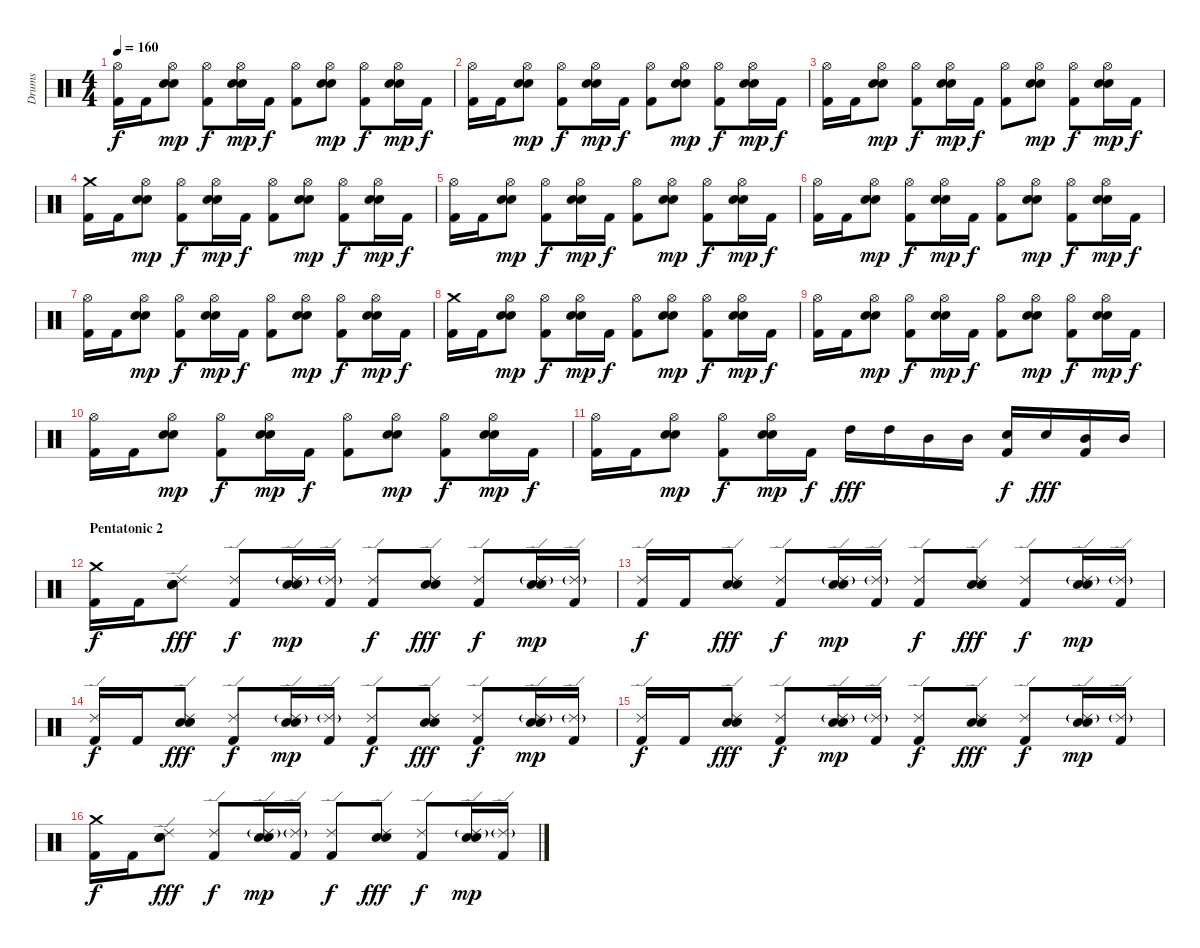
\track ("Drums" "Drums") {instrument percussion}
\staff {score}
\articulation defaults
\ts (4 4)
\tempo 160
\clef neutral
\ks c
("Kick (hit) 2" "Hi-Hat (open)").16{dy f} "Kick (hit) 2".16 ("Snare (hit) 2" "Electric Snare (hit)" "Hi-Hat (open)").8{dy mp} ("Kick (hit) 2" "Hi-Hat (open)").8{dy f} ("Snare (hit) 2" "Electric Snare (hit)" "Hi-Hat (open)").16{dy mp} "Kick (hit) 2".16{dy f} ("Kick (hit) 2" "Hi-Hat (open)").8 ("Snare (hit) 2" "Electric Snare (hit)" "Hi-Hat (open)").8{dy mp} ("Kick (hit) 2" "Hi-Hat (open)").8{dy f} ("Snare (hit) 2" "Electric Snare (hit)" "Hi-Hat (open)").16{dy mp} "Kick (hit) 2".16{dy f} |
("Kick (hit) 2" "Hi-Hat (open)").16 "Kick (hit) 2".16 ("Snare (hit) 2" "Electric Snare (hit)" "Hi-Hat (open)").8{dy mp} ("Kick (hit) 2" "Hi-Hat (open)").8{dy f} ("Snare (hit) 2" "Electric Snare (hit)" "Hi-Hat (open)").16{dy mp} "Kick (hit) 2".16{dy f} ("Kick (hit) 2" "Hi-Hat (open)").8 ("Snare (hit) 2" "Electric Snare (hit)" "Hi-Hat (open)").8{dy mp} ("Kick (hit) 2" "Hi-Hat (open)").8{dy f} ("Snare (hit) 2" "Electric Snare (hit)" "Hi-Hat (open)").16{dy mp} "Kick (hit) 2".16{dy f} |
("Kick (hit) 2" "Hi-Hat (open)").16 "Kick (hit) 2".16 ("Snare (hit) 2" "Electric Snare (hit)" "Hi-Hat (open)").8{dy mp} ("Kick (hit) 2" "Hi-Hat (open)").8{dy f} ("Snare (hit) 2" "Electric Snare (hit)" "Hi-Hat (open)").16{dy mp} "Kick (hit) 2".16{dy f} ("Kick (hit) 2" "Hi-Hat (open)").8 ("Snare (hit) 2" "Electric Snare (hit)" "Hi-Hat (open)").8{dy mp} ("Kick (hit) 2" "Hi-Hat (open)").8{dy f} ("Snare (hit) 2" "Electric Snare (hit)" "Hi-Hat (open)").16{dy mp} "Kick (hit) 2".16{dy f} |
("Kick (hit) 2" "Crash medium (hit)").16 "Kick (hit) 2".16 ("Snare (hit) 2" "Electric Snare (hit)" "Hi-Hat (open)").8{dy mp} ("Kick (hit) 2" "Hi-Hat (open)").8{dy f} ("Snare (hit) 2" "Electric Snare (hit)" "Hi-Hat (open)").16{dy mp} "Kick (hit) 2".16{dy f} ("Kick (hit) 2" "Hi-Hat (open)").8 ("Snare (hit) 2" "Electric Snare (hit)" "Hi-Hat (open)").8{dy mp} ("Kick (hit) 2" "Hi-Hat (open)").8{dy f} ("Snare (hit) 2" "Electric Snare (hit)" "Hi-Hat (open)").16{dy mp} "Kick (hit) 2".16{dy f} |
("Kick (hit) 2" "Hi-Hat (open)").16 "Kick (hit) 2".16 ("Snare (hit) 2" "Electric Snare (hit)" "Hi-Hat (open)").8{dy mp} ("Kick (hit) 2" "Hi-Hat (open)").8{dy f} ("Snare (hit) 2" "Electric Snare (hit)" "Hi-Hat (open)").16{dy mp} "Kick (hit) 2".16{dy f} ("Kick (hit) 2" "Hi-Hat (open)").8 ("Snare (hit) 2" "Electric Snare (hit)" "Hi-Hat (open)").8{dy mp} ("Kick (hit) 2" "Hi-Hat (open)").8{dy f} ("Snare (hit) 2" "Electric Snare (hit)" "Hi-Hat (open)").16{dy mp} "Kick (hit) 2".16{dy f} |
("Kick (hit) 2" "Hi-Hat (open)").16 "Kick (hit) 2".16 ("Snare (hit) 2" "Electric Snare (hit)" "Hi-Hat (open)").8{dy mp} ("Kick (hit) 2" "Hi-Hat (open)").8{dy f} ("Snare (hit) 2" "Electric Snare (hit)" "Hi-Hat (open)").16{dy mp} "Kick (hit) 2".16{dy f} ("Kick (hit) 2" "Hi-Hat (open)").8 ("Snare (hit) 2" "Electric Snare (hit)" "Hi-Hat (open)").8{dy mp} ("Kick (hit) 2" "Hi-Hat (open)").8{dy f} ("Snare (hit) 2" "Electric Snare (hit)" "Hi-Hat (open)").16{dy mp} "Kick (hit) 2".16{dy f} |
("Kick (hit) 2" "Hi-Hat (open)").16 "Kick (hit) 2".16 ("Snare (hit) 2" "Electric Snare (hit)" "Hi-Hat (open)").8{dy mp} ("Kick (hit) 2" "Hi-Hat (open)").8{dy f} ("Snare (hit) 2" "Electric Snare (hit)" "Hi-Hat (open)").16{dy mp} "Kick (hit) 2".16{dy f} ("Kick (hit) 2" "Hi-Hat (open)").8 ("Snare (hit) 2" "Electric Snare (hit)" "Hi-Hat (open)").8{dy mp} ("Kick (hit) 2" "Hi-Hat (open)").8{dy f} ("Snare (hit) 2" "Electric Snare (hit)" "Hi-Hat (open)").16{dy mp} "Kick (hit) 2".16{dy f} |
("Kick (hit) 2" "Crash medium (hit)").16 "Kick (hit) 2".16 ("Snare (hit) 2" "Electric Snare (hit)" "Hi-Hat (open)").8{dy mp} ("Kick (hit) 2" "Hi-Hat (open)").8{dy f} ("Snare (hit) 2" "Electric Snare (hit)" "Hi-Hat (open)").16{dy mp} "Kick (hit) 2".16{dy f} ("Kick (hit) 2" "Hi-Hat (open)").8 ("Snare (hit) 2" "Electric Snare (hit)" "Hi-Hat (open)").8{dy mp} ("Kick (hit) 2" "Hi-Hat (open)").8{dy f} ("Snare (hit) 2" "Electric Snare (hit)" "Hi-Hat (open)").16{dy mp} "Kick (hit) 2".16{dy f} |
("Kick (hit) 2" "Hi-Hat (open)").16 "Kick (hit) 2".16 ("Snare (hit) 2" "Electric Snare (hit)" "Hi-Hat (open)").8{dy mp} ("Kick (hit) 2" "Hi-Hat (open)").8{dy f} ("Snare (hit) 2" "Electric Snare (hit)" "Hi-Hat (open)").16{dy mp} "Kick (hit) 2".16{dy f} ("Kick (hit) 2" "Hi-Hat (open)").8 ("Snare (hit) 2" "Electric Snare (hit)" "Hi-Hat (open)").8{dy mp} ("Kick (hit) 2" "Hi-Hat (open)").8{dy f} ("Snare (hit) 2" "Electric Snare (hit)" "Hi-Hat (open)").16{dy mp} "Kick (hit) 2".16{dy f} |
("Kick (hit) 2" "Hi-Hat (open)").16 "Kick (hit) 2".16 ("Snare (hit) 2" "Electric Snare (hit)" "Hi-Hat (open)").8{dy mp} ("Kick (hit) 2" "Hi-Hat (open)").8{dy f} ("Snare (hit) 2" "Electric Snare (hit)" "Hi-Hat (open)").16{dy mp} "Kick (hit) 2".16{dy f} ("Kick (hit) 2" "Hi-Hat (open)").8 ("Snare (hit) 2" "Electric Snare (hit)" "Hi-Hat (open)").8{dy mp} ("Kick (hit) 2" "Hi-Hat (open)").8{dy f} ("Snare (hit) 2" "Electric Snare (hit)" "Hi-Hat (open)").16{dy mp} "Kick (hit) 2".16{dy f} |
("Kick (hit) 2" "Hi-Hat (open)").16 "Kick (hit) 2".16 ("Snare (hit) 2" "Electric Snare (hit)" "Hi-Hat (open)").8{dy mp} ("Kick (hit) 2" "Hi-Hat (open)").8{dy f} ("Snare (hit) 2" "Electric Snare (hit)" "Hi-Hat (open)").16{dy mp} "Kick (hit) 2".16{dy f} "High Tom (hit)".16{dy fff} "High Tom (hit)".16 "Mid Tom (hit)".16 "Mid Tom (hit)".16 ("Kick (hit) 2" "Snare (hit) 2").16{dy f} "Snare (hit) 2".16{dy fff} ("Kick (hit) 2" "Mid Tom (hit)").16 "Mid Tom (hit)".16 |
\section ("" "Pentatonic 2")
("Kick (hit) 2" "Crash medium (hit)").16{dy f} "Kick (hit) 2".16 ("Snare (hit) 2" "Snare (hit) 2" "Ride (edge) 2").8{dy fff} ("Kick (hit) 2" "Ride (edge) 2").8{dy f} ("Snare (hit) 2" "Snare (hit) 2" "Ride (edge) 2"{g}).16{dy mp} ("Kick (hit) 2" "Ride (edge) 2"{g}).16 ("Kick (hit) 2" "Ride (edge) 2").8{dy f} ("Snare (hit) 2" "Snare (hit) 2" "Ride (edge) 2").8{dy fff} ("Kick (hit) 2" "Ride (edge) 2").8{dy f} ("Snare (hit) 2" "Snare (hit) 2" "Ride (edge) 2"{g}).16{dy mp} ("Kick (hit) 2" "Ride (edge) 2"{g}).16 |
("Kick (hit) 2" "Ride (edge) 2").16{dy f} "Kick (hit) 2".16 ("Snare (hit) 2" "Snare (hit) 2" "Ride (edge) 2").8{dy fff} ("Kick (hit) 2" "Ride (edge) 2").8{dy f} ("Snare (hit) 2" "Snare (hit) 2" "Ride (edge) 2"{g}).16{dy mp} ("Kick (hit) 2" "Ride (edge) 2"{g}).16 ("Kick (hit) 2" "Ride (edge) 2").8{dy f} ("Snare (hit) 2" "Snare (hit) 2" "Ride (edge) 2").8{dy fff} ("Kick (hit) 2" "Ride (edge) 2").8{dy f} ("Snare (hit) 2" "Snare (hit) 2" "Ride (edge) 2"{g}).16{dy mp} ("Kick (hit) 2" "Ride (edge) 2"{g}).16 |
("Kick (hit) 2" "Ride (edge) 2").16{dy f} "Kick (hit) 2".16 ("Snare (hit) 2" "Snare (hit) 2" "Ride (edge) 2").8{dy fff} ("Kick (hit) 2" "Ride (edge) 2").8{dy f} ("Snare (hit) 2" "Snare (hit) 2" "Ride (edge) 2"{g}).16{dy mp} ("Kick (hit) 2" "Ride (edge) 2"{g}).16 ("Kick (hit) 2" "Ride (edge) 2").8{dy f} ("Snare (hit) 2" "Snare (hit) 2" "Ride (edge) 2").8{dy fff} ("Kick (hit) 2" "Ride (edge) 2").8{dy f} ("Snare (hit) 2" "Snare (hit) 2" "Ride (edge) 2"{g}).16{dy mp} ("Kick (hit) 2" "Ride (edge) 2"{g}).16 |
("Kick (hit) 2" "Ride (edge) 2").16{dy f} "Kick (hit) 2".16 ("Snare (hit) 2" "Snare (hit) 2" "Ride (edge) 2").8{dy fff} ("Kick (hit) 2" "Ride (edge) 2").8{dy f} ("Snare (hit) 2" "Snare (hit) 2" "Ride (edge) 2"{g}).16{dy mp} ("Kick (hit) 2" "Ride (edge) 2"{g}).16 ("Kick (hit) 2" "Ride (edge) 2").8{dy f} ("Snare (hit) 2" "Snare (hit) 2" "Ride (edge) 2").8{dy fff} ("Kick (hit) 2" "Ride (edge) 2").8{dy f} ("Snare (hit) 2" "Snare (hit) 2" "Ride (edge) 2"{g}).16{dy mp} ("Kick (hit) 2" "Ride (edge) 2"{g}).16 |
("Kick (hit) 2" "Crash medium (hit)").16{dy f} "Kick (hit) 2".16 ("Snare (hit) 2" "Snare (hit) 2" "Ride (edge) 2").8{dy fff} ("Kick (hit) 2" "Ride (edge) 2").8{dy f} ("Snare (hit) 2" "Snare (hit) 2" "Ride (edge) 2"{g}).16{dy mp} ("Kick (hit) 2" "Ride (edge) 2"{g}).16 ("Kick (hit) 2" "Ride (edge) 2").8{dy f} ("Snare (hit) 2" "Snare (hit) 2" "Ride (edge) 2").8{dy fff} ("Kick (hit) 2" "Ride (edge) 2").8{dy f} ("Snare (hit) 2" "Snare (hit) 2" "Ride (edge) 2"{g}).16{dy mp} ("Kick (hit) 2" "Ride (edge) 2"{g}).16
